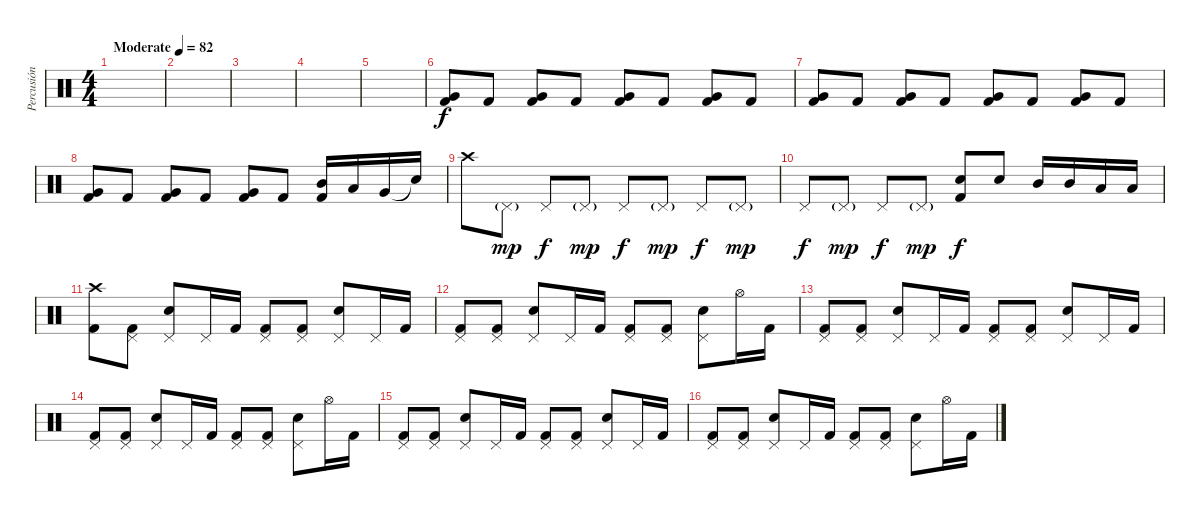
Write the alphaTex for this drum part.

\track ("Percusión" "Percusión") {instrument percussion}
\staff {score}
\articulation defaults
\ts (4 4)
\tempo (82 "Moderate")
\clef neutral
\ks c
|
|
|
|
|
("Very Low Tom (hit)" "Kick (hit) 2").8 "Kick (hit) 2".8 ("Very Low Tom (hit)" "Kick (hit) 2").8 "Kick (hit) 2".8 ("Very Low Tom (hit)" "Kick (hit) 2").8 "Kick (hit) 2".8 ("Very Low Tom (hit)" "Kick (hit) 2").8 "Kick (hit) 2".8 |
("Very Low Tom (hit)" "Kick (hit) 2").8 "Kick (hit) 2".8 ("Very Low Tom (hit)" "Kick (hit) 2").8 "Kick (hit) 2".8 ("Very Low Tom (hit)" "Kick (hit) 2").8 "Kick (hit) 2".8 ("Very Low Tom (hit)" "Kick (hit) 2").8 "Kick (hit) 2".8 |
("Very Low Tom (hit)" "Kick (hit) 2").8 "Kick (hit) 2".8 ("Very Low Tom (hit)" "Kick (hit) 2").8 "Kick (hit) 2".8 ("Very Low Tom (hit)" "Kick (hit) 2").8 "Kick (hit) 2".8 ("Mid Tom (hit)" "Kick (hit) 2").16 "Low Tom (hit)".16 "Very Low Tom (hit)".16 "Snare (hit)"{t}.16 |
"Crash high (hit)".8 "Pedal Hi-Hat (hit)"{g}.8{dy mp} "Pedal Hi-Hat (hit)".8{dy f} "Pedal Hi-Hat (hit)"{g}.8{dy mp} "Pedal Hi-Hat (hit)".8{dy f} "Pedal Hi-Hat (hit)"{g}.8{dy mp} "Pedal Hi-Hat (hit)".8{dy f} "Pedal Hi-Hat (hit)"{g}.8{dy mp} |
"Pedal Hi-Hat (hit)".8{dy f} "Pedal Hi-Hat (hit)"{g}.8{dy mp} "Pedal Hi-Hat (hit)".8{dy f} "Pedal Hi-Hat (hit)"{g}.8{dy mp} ("Snare (hit) 2" "Kick (hit) 2").8{dy f} "Snare (hit) 2".8 "Mid Tom (hit)".16 "Mid Tom (hit)".16 "Low Tom (hit)".16 "Low Tom (hit)".16 |
("Crash high (hit)" "Kick (hit) 2").8 ("Pedal Hi-Hat (hit)" "Kick (hit) 2").8 ("Pedal Hi-Hat (hit)" "Snare (hit) 2").8 "Pedal Hi-Hat (hit)".16 "Kick (hit) 2".16 ("Pedal Hi-Hat (hit)" "Kick (hit) 2").8 ("Pedal Hi-Hat (hit)" "Kick (hit) 2").8 ("Pedal Hi-Hat (hit)" "Snare (hit) 2").8 "Pedal Hi-Hat (hit)".16 "Kick (hit) 2".16 |
("Pedal Hi-Hat (hit)" "Kick (hit) 2").8 ("Pedal Hi-Hat (hit)" "Kick (hit) 2").8 ("Pedal Hi-Hat (hit)" "Snare (hit) 2").8 "Pedal Hi-Hat (hit)".16 "Kick (hit) 2".16 ("Pedal Hi-Hat (hit)" "Kick (hit) 2").8 ("Pedal Hi-Hat (hit)" "Kick (hit) 2").8 ("Pedal Hi-Hat (hit)" "Snare (hit) 2").8 "Hi-Hat (open)".16 "Kick (hit) 2".16 |
("Pedal Hi-Hat (hit)" "Kick (hit) 2").8 ("Pedal Hi-Hat (hit)" "Kick (hit) 2").8 ("Pedal Hi-Hat (hit)" "Snare (hit) 2").8 "Pedal Hi-Hat (hit)".16 "Kick (hit) 2".16 ("Pedal Hi-Hat (hit)" "Kick (hit) 2").8 ("Pedal Hi-Hat (hit)" "Kick (hit) 2").8 ("Pedal Hi-Hat (hit)" "Snare (hit) 2").8 "Pedal Hi-Hat (hit)".16 "Kick (hit) 2".16 |
("Pedal Hi-Hat (hit)" "Kick (hit) 2").8 ("Pedal Hi-Hat (hit)" "Kick (hit) 2").8 ("Pedal Hi-Hat (hit)" "Snare (hit) 2").8 "Pedal Hi-Hat (hit)".16 "Kick (hit) 2".16 ("Pedal Hi-Hat (hit)" "Kick (hit) 2").8 ("Pedal Hi-Hat (hit)" "Kick (hit) 2").8 ("Pedal Hi-Hat (hit)" "Snare (hit) 2").8 "Hi-Hat (open)".16 "Kick (hit) 2".16 |
("Pedal Hi-Hat (hit)" "Kick (hit) 2").8 ("Pedal Hi-Hat (hit)" "Kick (hit) 2").8 ("Pedal Hi-Hat (hit)" "Snare (hit) 2").8 "Pedal Hi-Hat (hit)".16 "Kick (hit) 2".16 ("Pedal Hi-Hat (hit)" "Kick (hit) 2").8 ("Pedal Hi-Hat (hit)" "Kick (hit) 2").8 ("Pedal Hi-Hat (hit)" "Snare (hit) 2").8 "Pedal Hi-Hat (hit)".16 "Kick (hit) 2".16 |
("Pedal Hi-Hat (hit)" "Kick (hit) 2").8 ("Pedal Hi-Hat (hit)" "Kick (hit) 2").8 ("Pedal Hi-Hat (hit)" "Snare (hit) 2").8 "Pedal Hi-Hat (hit)".16 "Kick (hit) 2".16 ("Pedal Hi-Hat (hit)" "Kick (hit) 2").8 ("Pedal Hi-Hat (hit)" "Kick (hit) 2").8 ("Pedal Hi-Hat (hit)" "Snare (hit) 2").8 "Hi-Hat (open)".16 "Kick (hit) 2".16
